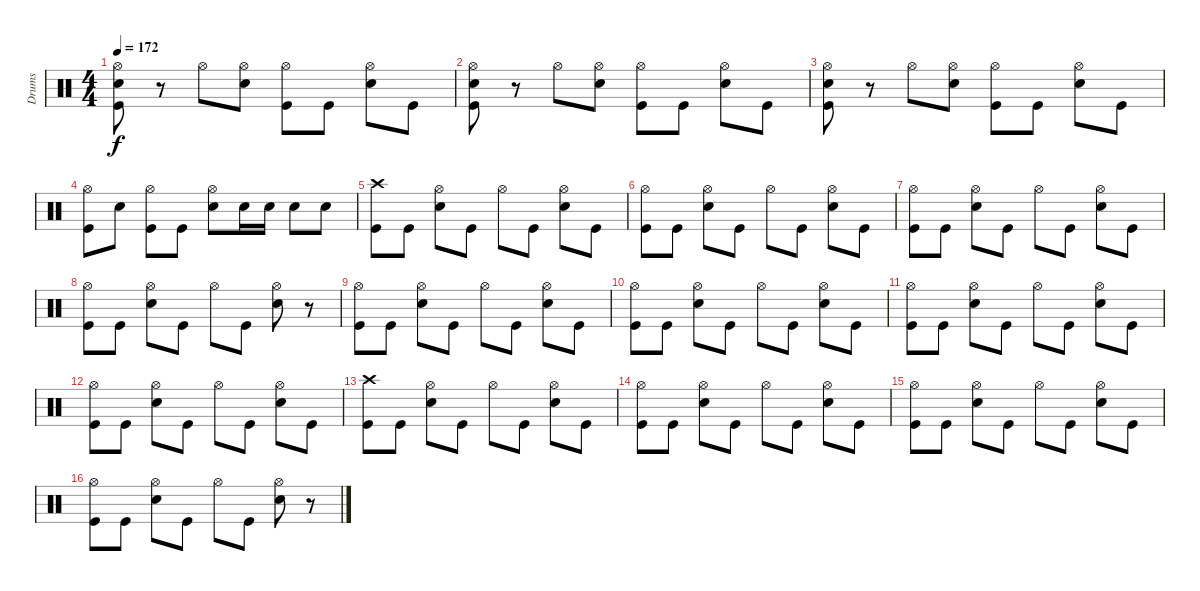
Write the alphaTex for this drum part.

\track ("Drums" "Drums") {instrument percussion}
\staff {score}
\articulation defaults
\ts (4 4)
\tempo 172
\clef neutral
\ks c
("Hi-Hat (open)" "Snare (hit) 2" "Kick (hit)").8{dy f} r.8 "Hi-Hat (open)".8 ("Hi-Hat (open)" "Snare (hit) 2").8 ("Hi-Hat (open)" "Kick (hit)").8 "Kick (hit)".8 ("Hi-Hat (open)" "Snare (hit) 2").8 "Kick (hit)".8 |
("Hi-Hat (open)" "Snare (hit) 2" "Kick (hit)").8 r.8 "Hi-Hat (open)".8 ("Hi-Hat (open)" "Snare (hit) 2").8 ("Hi-Hat (open)" "Kick (hit)").8 "Kick (hit)".8 ("Hi-Hat (open)" "Snare (hit) 2").8 "Kick (hit)".8 |
("Hi-Hat (open)" "Snare (hit) 2" "Kick (hit)").8 r.8 "Hi-Hat (open)".8 ("Hi-Hat (open)" "Snare (hit) 2").8 ("Hi-Hat (open)" "Kick (hit)").8 "Kick (hit)".8 ("Hi-Hat (open)" "Snare (hit) 2").8 "Kick (hit)".8 |
("Hi-Hat (open)" "Kick (hit)").8 "Snare (hit) 2".8 ("Hi-Hat (open)" "Kick (hit)").8 "Kick (hit)".8 ("Hi-Hat (open)" "Snare (hit) 2").8 "Snare (hit) 2".16 "Snare (hit) 2".16 "Snare (hit) 2".8 "Snare (hit) 2".8 |
("Crash high (hit)" "Kick (hit)").8 "Kick (hit)".8 ("Hi-Hat (open)" "Snare (hit) 2").8 "Kick (hit)".8 "Hi-Hat (open)".8 "Kick (hit)".8 ("Hi-Hat (open)" "Snare (hit) 2").8 "Kick (hit)".8 |
("Hi-Hat (open)" "Kick (hit)").8 "Kick (hit)".8 ("Hi-Hat (open)" "Snare (hit) 2").8 "Kick (hit)".8 "Hi-Hat (open)".8 "Kick (hit)".8 ("Hi-Hat (open)" "Snare (hit) 2").8 "Kick (hit)".8 |
("Hi-Hat (open)" "Kick (hit)").8 "Kick (hit)".8 ("Hi-Hat (open)" "Snare (hit) 2").8 "Kick (hit)".8 "Hi-Hat (open)".8 "Kick (hit)".8 ("Hi-Hat (open)" "Snare (hit) 2").8 "Kick (hit)".8 |
("Hi-Hat (open)" "Kick (hit)").8 "Kick (hit)".8 ("Hi-Hat (open)" "Snare (hit) 2").8 "Kick (hit)".8 "Hi-Hat (open)".8 "Kick (hit)".8 ("Hi-Hat (open)" "Snare (hit) 2").8 r.8 |
("Hi-Hat (open)" "Kick (hit)").8 "Kick (hit)".8 ("Hi-Hat (open)" "Snare (hit) 2").8 "Kick (hit)".8 "Hi-Hat (open)".8 "Kick (hit)".8 ("Hi-Hat (open)" "Snare (hit) 2").8 "Kick (hit)".8 |
("Hi-Hat (open)" "Kick (hit)").8 "Kick (hit)".8 ("Hi-Hat (open)" "Snare (hit) 2").8 "Kick (hit)".8 "Hi-Hat (open)".8 "Kick (hit)".8 ("Hi-Hat (open)" "Snare (hit) 2").8 "Kick (hit)".8 |
("Hi-Hat (open)" "Kick (hit)").8 "Kick (hit)".8 ("Hi-Hat (open)" "Snare (hit) 2").8 "Kick (hit)".8 "Hi-Hat (open)".8 "Kick (hit)".8 ("Hi-Hat (open)" "Snare (hit) 2").8 "Kick (hit)".8 |
("Hi-Hat (open)" "Kick (hit)").8 "Kick (hit)".8 ("Hi-Hat (open)" "Snare (hit) 2").8 "Kick (hit)".8 "Hi-Hat (open)".8 "Kick (hit)".8 ("Hi-Hat (open)" "Snare (hit) 2").8 "Kick (hit)".8 |
("Crash high (hit)" "Kick (hit)").8 "Kick (hit)".8 ("Hi-Hat (open)" "Snare (hit) 2").8 "Kick (hit)".8 "Hi-Hat (open)".8 "Kick (hit)".8 ("Hi-Hat (open)" "Snare (hit) 2").8 "Kick (hit)".8 |
("Hi-Hat (open)" "Kick (hit)").8 "Kick (hit)".8 ("Hi-Hat (open)" "Snare (hit) 2").8 "Kick (hit)".8 "Hi-Hat (open)".8 "Kick (hit)".8 ("Hi-Hat (open)" "Snare (hit) 2").8 "Kick (hit)".8 |
("Hi-Hat (open)" "Kick (hit)").8 "Kick (hit)".8 ("Hi-Hat (open)" "Snare (hit) 2").8 "Kick (hit)".8 "Hi-Hat (open)".8 "Kick (hit)".8 ("Hi-Hat (open)" "Snare (hit) 2").8 "Kick (hit)".8 |
("Hi-Hat (open)" "Kick (hit)").8 "Kick (hit)".8 ("Hi-Hat (open)" "Snare (hit) 2").8 "Kick (hit)".8 "Hi-Hat (open)".8 "Kick (hit)".8 ("Hi-Hat (open)" "Snare (hit) 2").8 r.8
